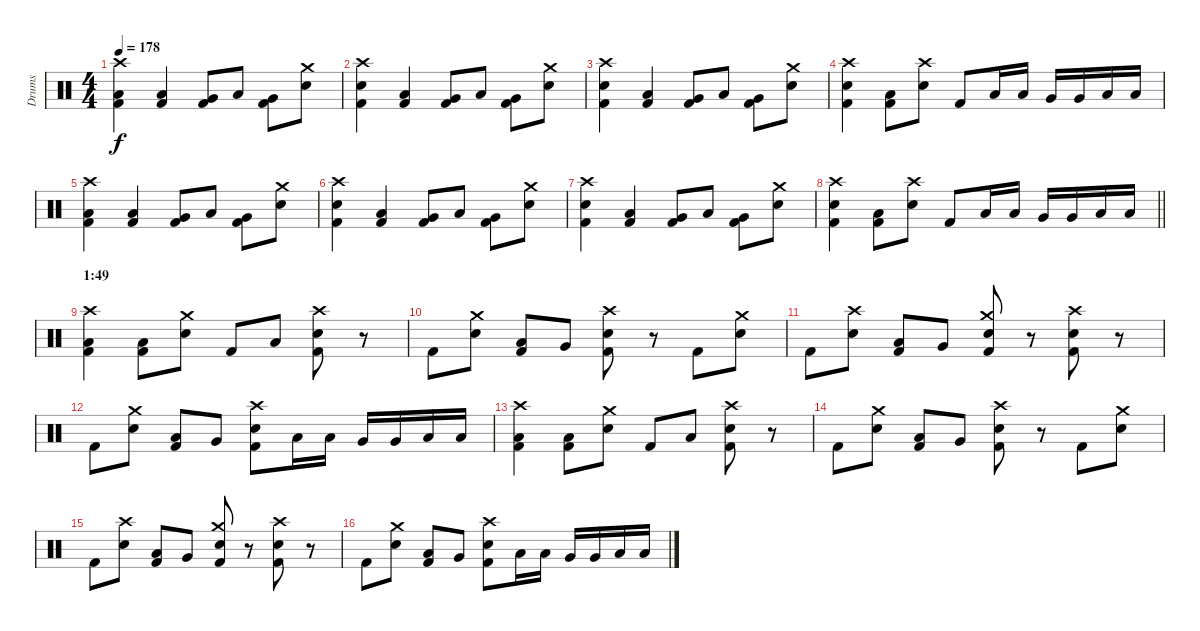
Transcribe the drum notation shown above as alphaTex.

\track ("Drums" "Drums") {instrument percussion}
\staff {score}
\articulation defaults
\ts (4 4)
\tempo 178
\clef neutral
\ks c
("Crash high (hit)" "Low Floor Tom (hit)" "Kick (hit) 2").4{dy f} ("Low Floor Tom (hit)" "Kick (hit) 2").4 ("Very Low Tom (hit)" "Kick (hit) 2").8 "Low Floor Tom (hit)".8 ("Very Low Tom (hit)" "Kick (hit) 2").8 ("Crash medium (hit)" "Electric Snare (hit)").8 |
("Crash high (hit)" "Electric Snare (hit)" "Kick (hit) 2").4 ("Low Floor Tom (hit)" "Kick (hit) 2").4 ("Very Low Tom (hit)" "Kick (hit) 2").8 "Low Floor Tom (hit)".8 ("Very Low Tom (hit)" "Kick (hit) 2").8 ("Crash medium (hit)" "Electric Snare (hit)").8 |
("Crash high (hit)" "Electric Snare (hit)" "Kick (hit) 2").4 ("Low Floor Tom (hit)" "Kick (hit) 2").4 ("Very Low Tom (hit)" "Kick (hit) 2").8 "Low Floor Tom (hit)".8 ("Very Low Tom (hit)" "Kick (hit) 2").8 ("Crash medium (hit)" "Electric Snare (hit)").8 |
("Crash high (hit)" "Electric Snare (hit)" "Kick (hit) 2").4 ("Low Floor Tom (hit)" "Kick (hit) 2").8 ("Crash high (hit)" "Electric Snare (hit)").8 "Kick (hit) 2".8 "Low Floor Tom (hit)".16 "Low Floor Tom (hit)".16 "Very Low Tom (hit)".16 "Very Low Tom (hit)".16 "Low Floor Tom (hit)".16 "Low Floor Tom (hit)".16 |
("Crash high (hit)" "Low Floor Tom (hit)" "Kick (hit) 2").4 ("Low Floor Tom (hit)" "Kick (hit) 2").4 ("Very Low Tom (hit)" "Kick (hit) 2").8 "Low Floor Tom (hit)".8 ("Very Low Tom (hit)" "Kick (hit) 2").8 ("Crash medium (hit)" "Electric Snare (hit)").8 |
("Crash high (hit)" "Electric Snare (hit)" "Kick (hit) 2").4 ("Low Floor Tom (hit)" "Kick (hit) 2").4 ("Very Low Tom (hit)" "Kick (hit) 2").8 "Low Floor Tom (hit)".8 ("Very Low Tom (hit)" "Kick (hit) 2").8 ("Crash medium (hit)" "Electric Snare (hit)").8 |
("Crash high (hit)" "Electric Snare (hit)" "Kick (hit) 2").4 ("Low Floor Tom (hit)" "Kick (hit) 2").4 ("Very Low Tom (hit)" "Kick (hit) 2").8 "Low Floor Tom (hit)".8 ("Very Low Tom (hit)" "Kick (hit) 2").8 ("Crash medium (hit)" "Electric Snare (hit)").8 |
\barLineRight lightlight
("Crash high (hit)" "Electric Snare (hit)" "Kick (hit) 2").4 ("Low Floor Tom (hit)" "Kick (hit) 2").8 ("Crash high (hit)" "Electric Snare (hit)").8 "Kick (hit) 2".8 "Low Floor Tom (hit)".16 "Low Floor Tom (hit)".16 "Very Low Tom (hit)".16 "Very Low Tom (hit)".16 "Low Floor Tom (hit)".16 "Low Floor Tom (hit)".16 |
\section ("" "1:49")
("Crash high (hit)" "Low Floor Tom (hit)" "Kick (hit) 2").4 ("Low Floor Tom (hit)" "Kick (hit) 2").8 ("Crash medium (hit)" "Electric Snare (hit)").8 "Kick (hit) 2".8 "Low Floor Tom (hit)".8 ("Crash high (hit)" "Electric Snare (hit)" "Kick (hit) 2").8 r.8 |
"Kick (hit) 2".8 ("Crash medium (hit)" "Electric Snare (hit)").8 ("Low Floor Tom (hit)" "Kick (hit) 2").8 "Very Low Tom (hit)".8 ("Crash high (hit)" "Electric Snare (hit)" "Kick (hit) 2").8 r.8 "Kick (hit) 2".8 ("Crash medium (hit)" "Electric Snare (hit)").8 |
"Kick (hit) 2".8 ("Crash high (hit)" "Electric Snare (hit)").8 ("Low Floor Tom (hit)" "Kick (hit) 2").8 "Very Low Tom (hit)".8 ("Crash medium (hit)" "Electric Snare (hit)" "Kick (hit) 2").8 r.8 ("Crash high (hit)" "Electric Snare (hit)" "Kick (hit) 2").8 r.8 |
"Kick (hit) 2".8 ("Crash medium (hit)" "Electric Snare (hit)").8 ("Low Floor Tom (hit)" "Kick (hit) 2").8 "Very Low Tom (hit)".8 ("Crash high (hit)" "Electric Snare (hit)" "Kick (hit) 2").8 "Low Floor Tom (hit)".16 "Low Floor Tom (hit)".16 "Very Low Tom (hit)".16 "Very Low Tom (hit)".16 "Low Floor Tom (hit)".16 "Low Floor Tom (hit)".16 |
("Crash high (hit)" "Low Floor Tom (hit)" "Kick (hit) 2").4 ("Low Floor Tom (hit)" "Kick (hit) 2").8 ("Crash medium (hit)" "Electric Snare (hit)").8 "Kick (hit) 2".8 "Low Floor Tom (hit)".8 ("Crash high (hit)" "Electric Snare (hit)" "Kick (hit) 2").8 r.8 |
"Kick (hit) 2".8 ("Crash medium (hit)" "Electric Snare (hit)").8 ("Low Floor Tom (hit)" "Kick (hit) 2").8 "Very Low Tom (hit)".8 ("Crash high (hit)" "Electric Snare (hit)" "Kick (hit) 2").8 r.8 "Kick (hit) 2".8 ("Crash medium (hit)" "Electric Snare (hit)").8 |
"Kick (hit) 2".8 ("Crash high (hit)" "Electric Snare (hit)").8 ("Low Floor Tom (hit)" "Kick (hit) 2").8 "Very Low Tom (hit)".8 ("Crash medium (hit)" "Electric Snare (hit)" "Kick (hit) 2").8 r.8 ("Crash high (hit)" "Electric Snare (hit)" "Kick (hit) 2").8 r.8 |
"Kick (hit) 2".8 ("Crash medium (hit)" "Electric Snare (hit)").8 ("Low Floor Tom (hit)" "Kick (hit) 2").8 "Very Low Tom (hit)".8 ("Crash high (hit)" "Electric Snare (hit)" "Kick (hit) 2").8 "Low Floor Tom (hit)".16 "Low Floor Tom (hit)".16 "Very Low Tom (hit)".16 "Very Low Tom (hit)".16 "Low Floor Tom (hit)".16 "Low Floor Tom (hit)".16
